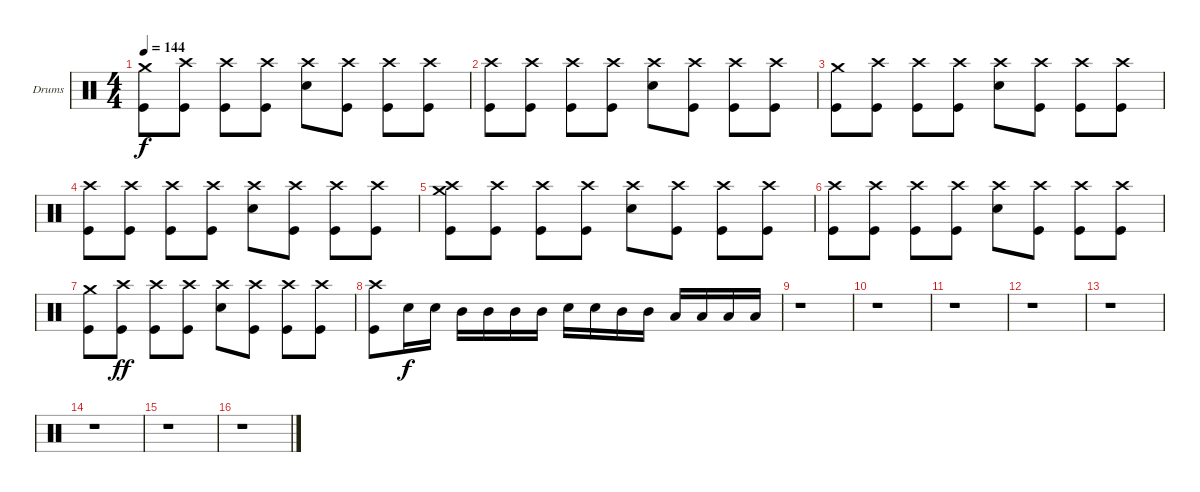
\bracketExtendMode groupsimilarinstruments
\firstSystemTrackNameOrientation horizontal
\otherSystemsTrackNameOrientation horizontal
\track ("Drumkit" "Drums") {instrument percussion}
\staff {score}
\articulation defaults
\ts (4 4)
\tempo 144
\clef neutral
\ks c
("Crash medium (hit)" "Kick (hit)").8{dy f} ("Crash high (hit)" "Kick (hit)").8 ("Crash high (hit)" "Kick (hit)").8 ("Crash high (hit)" "Kick (hit)").8 ("Crash high (hit)" "Snare (hit) 2").8 ("Crash high (hit)" "Kick (hit)").8 ("Crash high (hit)" "Kick (hit)").8 ("Crash high (hit)" "Kick (hit)").8 |
("Crash high (hit)" "Kick (hit)").8 ("Crash high (hit)" "Kick (hit)").8 ("Crash high (hit)" "Kick (hit)").8 ("Crash high (hit)" "Kick (hit)").8 ("Crash high (hit)" "Snare (hit) 2").8 ("Crash high (hit)" "Kick (hit)").8 ("Crash high (hit)" "Kick (hit)").8 ("Crash high (hit)" "Kick (hit)").8 |
("Crash medium (hit)" "Kick (hit)").8 ("Crash high (hit)" "Kick (hit)").8 ("Crash high (hit)" "Kick (hit)").8 ("Crash high (hit)" "Kick (hit)").8 ("Crash high (hit)" "Snare (hit) 2").8 ("Crash high (hit)" "Kick (hit)").8 ("Crash high (hit)" "Kick (hit)").8 ("Crash high (hit)" "Kick (hit)").8 |
("Crash high (hit)" "Kick (hit)").8 ("Crash high (hit)" "Kick (hit)").8 ("Crash high (hit)" "Kick (hit)").8 ("Crash high (hit)" "Kick (hit)").8 ("Crash high (hit)" "Snare (hit) 2").8 ("Crash high (hit)" "Kick (hit)").8 ("Crash high (hit)" "Kick (hit)").8 ("Crash high (hit)" "Kick (hit)").8 |
("Crash medium (hit)" "Crash high (hit)" "Kick (hit)").8 ("Crash high (hit)" "Kick (hit)").8 ("Crash high (hit)" "Kick (hit)").8 ("Crash high (hit)" "Kick (hit)").8 ("Crash high (hit)" "Snare (hit) 2").8 ("Crash high (hit)" "Kick (hit)").8 ("Crash high (hit)" "Kick (hit)").8 ("Crash high (hit)" "Kick (hit)").8 |
("Crash high (hit)" "Kick (hit)").8 ("Crash high (hit)" "Kick (hit)").8 ("Crash high (hit)" "Kick (hit)").8 ("Crash high (hit)" "Kick (hit)").8 ("Crash high (hit)" "Snare (hit) 2").8 ("Crash high (hit)" "Kick (hit)").8 ("Crash high (hit)" "Kick (hit)").8 ("Crash high (hit)" "Kick (hit)").8 |
("Crash medium (hit)" "Kick (hit)").8 ("Crash high (hit)" "Kick (hit)").8{dy ff} ("Crash high (hit)" "Kick (hit)").8 ("Crash high (hit)" "Kick (hit)").8 ("Crash high (hit)" "Snare (hit) 2").8 ("Crash high (hit)" "Kick (hit)").8 ("Crash high (hit)" "Kick (hit)").8 ("Crash high (hit)" "Kick (hit)").8 |
("Crash high (hit)" "Kick (hit)").8 "Snare (hit) 2".16{dy f} "Snare (hit) 2".16 "Mid Tom (hit)".16 "Mid Tom (hit)".16 "Mid Tom (hit)".16 "Mid Tom (hit)".16 "Snare (hit) 2".16 "Snare (hit) 2".16 "Mid Tom (hit)".16 "Mid Tom (hit)".16 "Low Tom (hit)".16 "Low Tom (hit)".16 "Low Tom (hit)".16 "Low Tom (hit)".16 |
r.1 |
r.1 |
r.1 |
r.1 |
r.1 |
r.1 |
r.1 |
r.1
